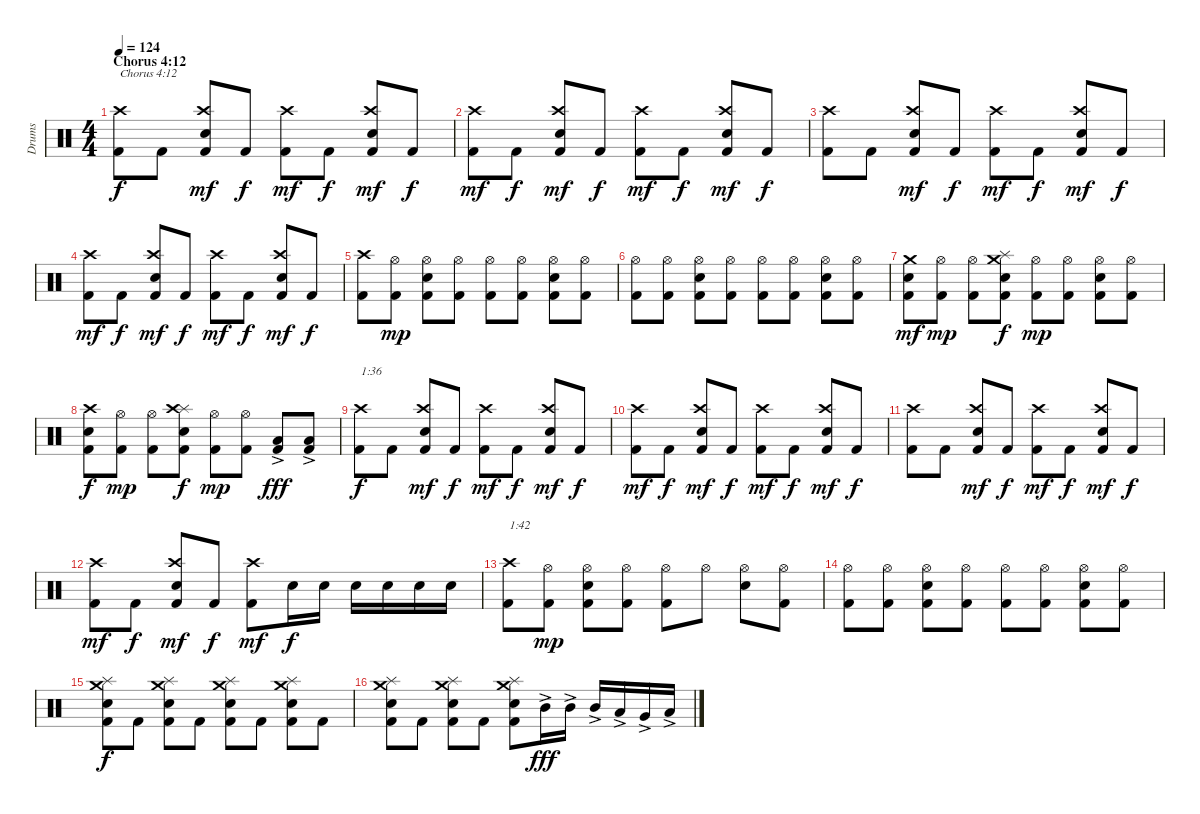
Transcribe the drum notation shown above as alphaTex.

\track ("Drums" "Drums") {instrument percussion}
\staff {score}
\articulation defaults
\ts (4 4)
\section ("" "Chorus 4:12")
\tempo 124
\clef neutral
\ks c
("Kick (hit) 2" "Crash high (hit)").8{txt "Chorus 4:12" dy f} "Kick (hit) 2".8 ("Kick (hit) 2" "Electric Snare (hit)" "Crash high (hit)").8{dy mf} "Kick (hit) 2".8{dy f} ("Kick (hit) 2" "Crash high (hit)").8{dy mf} "Kick (hit) 2".8{dy f} ("Kick (hit) 2" "Electric Snare (hit)" "Crash high (hit)").8{dy mf} "Kick (hit) 2".8{dy f} |
("Kick (hit) 2" "Crash high (hit)").8{dy mf} "Kick (hit) 2".8{dy f} ("Kick (hit) 2" "Electric Snare (hit)" "Crash high (hit)").8{dy mf} "Kick (hit) 2".8{dy f} ("Kick (hit) 2" "Crash high (hit)").8{dy mf} "Kick (hit) 2".8{dy f} ("Kick (hit) 2" "Electric Snare (hit)" "Crash high (hit)").8{dy mf} "Kick (hit) 2".8{dy f} |
("Kick (hit) 2" "Crash high (hit)").8 "Kick (hit) 2".8 ("Kick (hit) 2" "Electric Snare (hit)" "Crash high (hit)").8{dy mf} "Kick (hit) 2".8{dy f} ("Kick (hit) 2" "Crash high (hit)").8{dy mf} "Kick (hit) 2".8{dy f} ("Kick (hit) 2" "Electric Snare (hit)" "Crash high (hit)").8{dy mf} "Kick (hit) 2".8{dy f} |
("Kick (hit) 2" "Crash high (hit)").8{dy mf} "Kick (hit) 2".8{dy f} ("Kick (hit) 2" "Electric Snare (hit)" "Crash high (hit)").8{dy mf} "Kick (hit) 2".8{dy f} ("Kick (hit) 2" "Crash high (hit)").8{dy mf} "Kick (hit) 2".8{dy f} ("Kick (hit) 2" "Electric Snare (hit)" "Crash high (hit)").8{dy mf} "Kick (hit) 2".8{dy f} |
("Kick (hit) 2" "Crash high (hit)").8 ("Kick (hit) 2" "Hi-Hat (open)").8{dy mp} ("Kick (hit) 2" "Electric Snare (hit)" "Hi-Hat (open)").8 ("Kick (hit) 2" "Hi-Hat (open)").8 ("Kick (hit) 2" "Hi-Hat (open)").8 ("Kick (hit) 2" "Hi-Hat (open)").8 ("Kick (hit) 2" "Electric Snare (hit)" "Hi-Hat (open)").8 ("Kick (hit) 2" "Hi-Hat (open)").8 |
("Kick (hit) 2" "Hi-Hat (open)").8 ("Kick (hit) 2" "Hi-Hat (open)").8 ("Kick (hit) 2" "Electric Snare (hit)" "Hi-Hat (open)").8 ("Kick (hit) 2" "Hi-Hat (open)").8 ("Kick (hit) 2" "Hi-Hat (open)").8 ("Kick (hit) 2" "Hi-Hat (open)").8 ("Kick (hit) 2" "Electric Snare (hit)" "Hi-Hat (open)").8 ("Kick (hit) 2" "Hi-Hat (open)").8 |
("Kick (hit) 2" "Electric Snare (hit)" "Crash medium (hit)").8{dy mf} ("Kick (hit) 2" "Hi-Hat (open)").8{dy mp} ("Kick (hit) 2" "Hi-Hat (open)").8 ("Kick (hit) 2" "Electric Snare (hit)" "Splash (hit)" "Crash medium (hit)").8{dy f} ("Kick (hit) 2" "Hi-Hat (open)").8{dy mp} ("Kick (hit) 2" "Hi-Hat (open)").8 ("Kick (hit) 2" "Electric Snare (hit)" "Hi-Hat (open)").8 ("Kick (hit) 2" "Hi-Hat (open)").8 |
("Kick (hit) 2" "Electric Snare (hit)" "Crash high (hit)").8{dy f} ("Kick (hit) 2" "Hi-Hat (open)").8{dy mp} ("Kick (hit) 2" "Hi-Hat (open)").8 ("Kick (hit) 2" "Electric Snare (hit)" "Splash (hit)" "Crash high (hit)").8{dy f} ("Kick (hit) 2" "Hi-Hat (open)").8{dy mp} ("Kick (hit) 2" "Hi-Hat (open)").8 ("Kick (hit) 2" "Low Tom (hit)"{ac}).8{dy fff} ("Kick (hit) 2" "Low Tom (hit)"{ac}).8 |
("Kick (hit) 2" "Crash high (hit)").8{txt "1:36" dy f} "Kick (hit) 2".8 ("Kick (hit) 2" "Electric Snare (hit)" "Crash high (hit)").8{dy mf} "Kick (hit) 2".8{dy f} ("Kick (hit) 2" "Crash high (hit)").8{dy mf} "Kick (hit) 2".8{dy f} ("Kick (hit) 2" "Electric Snare (hit)" "Crash high (hit)").8{dy mf} "Kick (hit) 2".8{dy f} |
("Kick (hit) 2" "Crash high (hit)").8{dy mf} "Kick (hit) 2".8{dy f} ("Kick (hit) 2" "Electric Snare (hit)" "Crash high (hit)").8{dy mf} "Kick (hit) 2".8{dy f} ("Kick (hit) 2" "Crash high (hit)").8{dy mf} "Kick (hit) 2".8{dy f} ("Kick (hit) 2" "Electric Snare (hit)" "Crash high (hit)").8{dy mf} "Kick (hit) 2".8{dy f} |
("Kick (hit) 2" "Crash high (hit)").8 "Kick (hit) 2".8 ("Kick (hit) 2" "Electric Snare (hit)" "Crash high (hit)").8{dy mf} "Kick (hit) 2".8{dy f} ("Kick (hit) 2" "Crash high (hit)").8{dy mf} "Kick (hit) 2".8{dy f} ("Kick (hit) 2" "Electric Snare (hit)" "Crash high (hit)").8{dy mf} "Kick (hit) 2".8{dy f} |
("Kick (hit) 2" "Crash high (hit)").8{dy mf} "Kick (hit) 2".8{dy f} ("Kick (hit) 2" "Electric Snare (hit)" "Crash high (hit)").8{dy mf} "Kick (hit) 2".8{dy f} ("Kick (hit) 2" "Crash high (hit)").8{dy mf} "Electric Snare (hit)".16{dy f} "Electric Snare (hit)".16 "Electric Snare (hit)".16 "Electric Snare (hit)".16 "Electric Snare (hit)".16 "Electric Snare (hit)".16 |
("Kick (hit) 2" "Crash high (hit)").8{txt "1:42"} ("Kick (hit) 2" "Hi-Hat (open)").8{dy mp} ("Kick (hit) 2" "Electric Snare (hit)" "Hi-Hat (open)").8 ("Kick (hit) 2" "Hi-Hat (open)").8 ("Kick (hit) 2" "Hi-Hat (open)").8 "Hi-Hat (open)".8 ("Electric Snare (hit)" "Hi-Hat (open)").8 ("Kick (hit) 2" "Hi-Hat (open)").8 |
("Kick (hit) 2" "Hi-Hat (open)").8 ("Kick (hit) 2" "Hi-Hat (open)").8 ("Kick (hit) 2" "Electric Snare (hit)" "Hi-Hat (open)").8 ("Kick (hit) 2" "Hi-Hat (open)").8 ("Kick (hit) 2" "Hi-Hat (open)").8 ("Kick (hit) 2" "Hi-Hat (open)").8 ("Kick (hit) 2" "Electric Snare (hit)" "Hi-Hat (open)").8 ("Kick (hit) 2" "Hi-Hat (open)").8 |
("Kick (hit) 2" "Electric Snare (hit)" "Splash (hit)" "Crash medium (hit)").8{dy f} "Kick (hit) 2".8 ("Kick (hit) 2" "Electric Snare (hit)" "Splash (hit)" "Crash medium (hit)").8 "Kick (hit) 2".8 ("Kick (hit) 2" "Electric Snare (hit)" "Splash (hit)" "Crash medium (hit)").8 "Kick (hit) 2".8 ("Kick (hit) 2" "Electric Snare (hit)" "Splash (hit)" "Crash medium (hit)").8 "Kick (hit) 2".8 |
("Kick (hit) 2" "Electric Snare (hit)" "Splash (hit)" "Crash medium (hit)").8 "Kick (hit) 2".8 ("Kick (hit) 2" "Electric Snare (hit)" "Splash (hit)" "Crash medium (hit)").8 "Kick (hit) 2".8 ("Kick (hit) 2" "Electric Snare (hit)" "Splash (hit)" "Crash medium (hit)").8 "Mid Tom (hit)"{ac}.16{dy fff} "Mid Tom (hit)"{ac}.16 "Mid Tom (hit)"{ac}.16 "Low Tom (hit)"{ac}.16 "Very Low Tom (hit)"{ac}.16 "Low Floor Tom (hit)"{ac}.16
